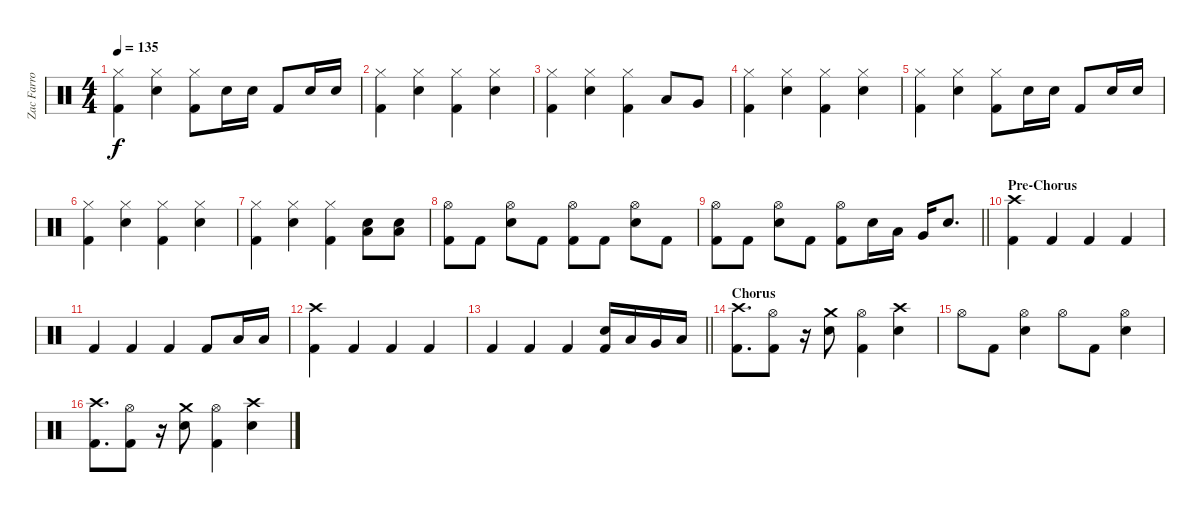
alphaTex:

\track ("Zac Farro" "Zac Farro") {instrument percussion}
\staff {score}
\articulation defaults
\ts (4 4)
\tempo 135
\clef neutral
\ks c
("Hi-Hat (closed)" "Kick (hit) 2").4{dy f} ("Hi-Hat (closed)" "Electric Snare (hit)").4 ("Hi-Hat (closed)" "Kick (hit) 2").8 "Electric Snare (hit)".16 "Electric Snare (hit)".16 "Kick (hit) 2".8 "Electric Snare (hit)".16 "Electric Snare (hit)".16 |
("Hi-Hat (closed)" "Kick (hit) 2").4 ("Hi-Hat (closed)" "Electric Snare (hit)").4 ("Hi-Hat (closed)" "Kick (hit) 2").4 ("Hi-Hat (closed)" "Electric Snare (hit)").4 |
("Hi-Hat (closed)" "Kick (hit) 2").4 ("Hi-Hat (closed)" "Electric Snare (hit)").4 ("Hi-Hat (closed)" "Kick (hit) 2").4 "Low Tom (hit)".8 "Very Low Tom (hit)".8 |
("Hi-Hat (closed)" "Kick (hit) 2").4 ("Hi-Hat (closed)" "Electric Snare (hit)").4 ("Hi-Hat (closed)" "Kick (hit) 2").4 ("Hi-Hat (closed)" "Electric Snare (hit)").4 |
("Hi-Hat (closed)" "Kick (hit) 2").4 ("Hi-Hat (closed)" "Electric Snare (hit)").4 ("Hi-Hat (closed)" "Kick (hit) 2").8 "Electric Snare (hit)".16 "Electric Snare (hit)".16 "Kick (hit) 2".8 "Electric Snare (hit)".16 "Electric Snare (hit)".16 |
("Hi-Hat (closed)" "Kick (hit) 2").4 ("Hi-Hat (closed)" "Electric Snare (hit)").4 ("Hi-Hat (closed)" "Kick (hit) 2").4 ("Hi-Hat (closed)" "Electric Snare (hit)").4 |
("Hi-Hat (closed)" "Kick (hit) 2").4 ("Hi-Hat (closed)" "Electric Snare (hit)").4 ("Hi-Hat (closed)" "Kick (hit) 2").4 ("Electric Snare (hit)" "Low Floor Tom (hit)").8 ("Low Tom (hit)" "Electric Snare (hit)").8 |
("Hi-Hat (open)" "Kick (hit) 2").8 "Kick (hit) 2".8 ("Hi-Hat (open)" "Electric Snare (hit)").8 "Kick (hit) 2".8 ("Hi-Hat (open)" "Kick (hit) 2").8 "Kick (hit) 2".8 ("Hi-Hat (open)" "Electric Snare (hit)").8 "Kick (hit) 2".8 |
\barLineRight lightlight
("Hi-Hat (open)" "Kick (hit) 2").8 "Kick (hit) 2".8 ("Hi-Hat (open)" "Electric Snare (hit)").8 "Kick (hit) 2".8 ("Hi-Hat (open)" "Kick (hit) 2").8 "Electric Snare (hit)".16 "Low Tom (hit)".16 "Very Low Tom (hit)".16 "Electric Snare (hit)".8{d} |
\section ("" "Pre-Chorus")
("Crash high (hit)" "Kick (hit) 2").4 "Kick (hit) 2".4 "Kick (hit) 2".4 "Kick (hit) 2".4 |
"Kick (hit) 2".4 "Kick (hit) 2".4 "Kick (hit) 2".4 "Kick (hit) 2".8 "Low Tom (hit)".16 "Low Floor Tom (hit)".16 |
("Crash high (hit)" "Kick (hit) 2").4 "Kick (hit) 2".4 "Kick (hit) 2".4 "Kick (hit) 2".4 |
\barLineRight lightlight "Kick (hit) 2".4 "Kick (hit) 2".4 "Kick (hit) 2".4
("Electric Snare (hit)" "Kick (hit) 2").16 "Low Tom (hit)".16 "Very Low Tom (hit)".16 "Low Floor Tom (hit)".16 |
\section ("" "Chorus")
("Crash high (hit)" "Kick (hit) 2").8{d} ("Hi-Hat (open)" "Kick (hit) 2").8 r.16 ("Crash medium (hit)" "Electric Snare (hit)").8 ("Hi-Hat (open)" "Kick (hit) 2").4 ("Crash high (hit)" "Electric Snare (hit)").4 |
"Hi-Hat (open)".8 "Kick (hit) 2".8 ("Hi-Hat (open)" "Electric Snare (hit)").4 "Hi-Hat (open)".8 "Kick (hit) 2".8 ("Hi-Hat (open)" "Electric Snare (hit)").4 |
("Crash high (hit)" "Kick (hit) 2").8{d} ("Hi-Hat (open)" "Kick (hit) 2").8 r.16 ("Crash medium (hit)" "Electric Snare (hit)").8 ("Hi-Hat (open)" "Kick (hit) 2").4 ("Crash high (hit)" "Electric Snare (hit)").4
